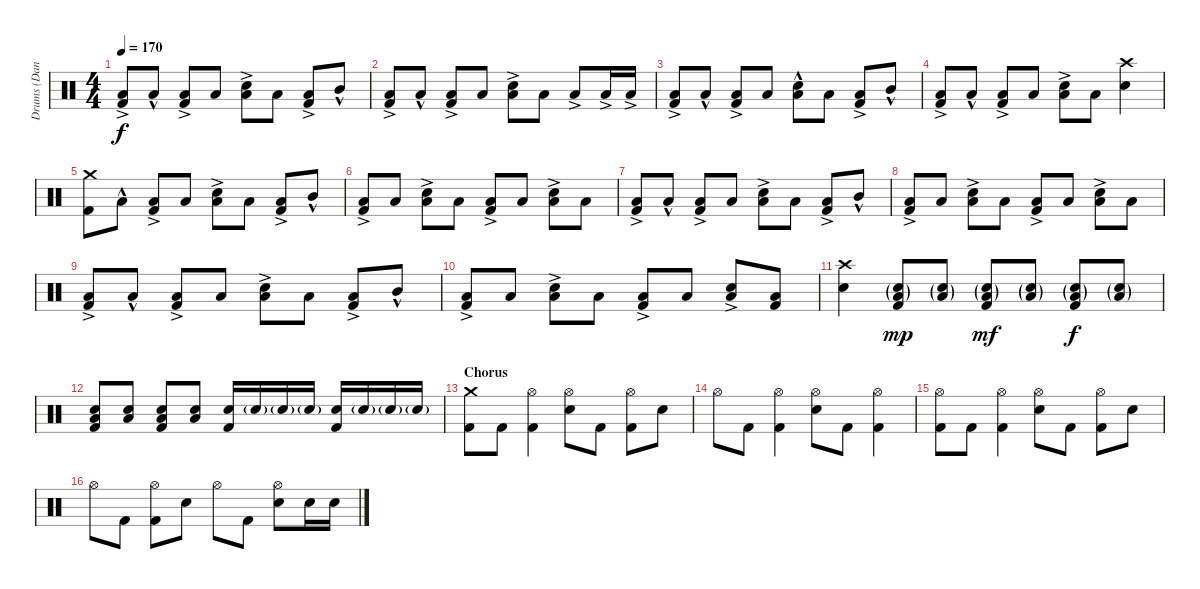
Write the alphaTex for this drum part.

\track ("Drums (Dan Trapp)" "Drums (Dan") {instrument percussion}
\staff {score}
\articulation defaults
\ts (4 4)
\tempo 170
\clef neutral
\ks c
("Kick (hit) 2" "Low Tom (hit)"{ac}).8{dy f} "Low Tom (hit)"{hac}.8 ("Kick (hit) 2" "Low Tom (hit)"{ac}).8 "Low Tom (hit)".8 ("Low Tom (hit)"{ac} "Snare (hit) 2").8 "Low Tom (hit)".8 ("Kick (hit) 2" "Low Tom (hit)"{ac}).8 "Mid Tom (hit)"{hac}.8 |
("Low Tom (hit)"{ac} "Kick (hit) 2").8 "Low Tom (hit)"{hac}.8 ("Low Tom (hit)"{ac} "Kick (hit) 2").8 "Low Tom (hit)".8 ("Snare (hit) 2" "Low Tom (hit)"{ac}).8 "Low Tom (hit)".8 "Low Tom (hit)"{ac}.8 "Low Tom (hit)"{ac}.16 "Low Tom (hit)"{ac}.16 |
("Low Tom (hit)"{ac} "Kick (hit) 2").8 "Low Tom (hit)"{hac}.8 ("Kick (hit) 2" "Low Tom (hit)"{ac}).8 "Low Tom (hit)".8 ("Snare (hit) 2" "Low Tom (hit)"{hac}).8 "Low Tom (hit)".8 ("Kick (hit) 2" "Low Tom (hit)"{ac}).8 "Mid Tom (hit)"{hac}.8 |
("Low Tom (hit)"{ac} "Kick (hit) 2").8 "Low Tom (hit)"{hac}.8 ("Low Tom (hit)"{ac} "Kick (hit) 2").8 "Low Tom (hit)".8 ("Snare (hit) 2" "Low Tom (hit)"{ac}).8 "Low Tom (hit)".8 ("Snare (hit) 2" "Crash high (hit)").4 |
("Kick (hit) 2" "Crash medium (hit)").8 "Low Tom (hit)"{hac}.8 ("Kick (hit) 2" "Low Tom (hit)"{ac}).8 "Low Tom (hit)".8 ("Low Tom (hit)"{ac} "Snare (hit) 2").8 "Low Tom (hit)".8 ("Kick (hit) 2" "Low Tom (hit)"{ac}).8 "Mid Tom (hit)"{hac}.8 |
("Low Tom (hit)"{ac} "Kick (hit) 2").8 "Low Tom (hit)".8 ("Low Tom (hit)"{ac} "Snare (hit) 2").8 "Low Tom (hit)".8 ("Low Tom (hit)"{ac} "Kick (hit) 2").8 "Low Tom (hit)".8 ("Low Tom (hit)"{ac} "Snare (hit) 2").8 "Low Tom (hit)".8 |
("Kick (hit) 2" "Low Tom (hit)"{ac}).8 "Low Tom (hit)"{hac}.8 ("Low Tom (hit)"{ac} "Kick (hit) 2").8 "Low Tom (hit)".8 ("Snare (hit) 2" "Low Tom (hit)"{ac}).8 "Low Tom (hit)".8 ("Low Tom (hit)"{ac} "Kick (hit) 2").8 "Mid Tom (hit)"{hac}.8 |
("Kick (hit) 2" "Low Tom (hit)"{ac}).8 "Low Tom (hit)".8 ("Low Tom (hit)"{ac} "Snare (hit) 2").8 "Low Tom (hit)".8 ("Low Tom (hit)"{ac} "Kick (hit) 2").8 "Low Tom (hit)".8 ("Snare (hit) 2" "Low Tom (hit)"{ac}).8 "Low Tom (hit)".8 |
("Kick (hit) 2" "Low Tom (hit)"{ac}).8 "Low Tom (hit)"{hac}.8 ("Low Tom (hit)"{ac} "Kick (hit) 2").8 "Low Tom (hit)".8 ("Snare (hit) 2" "Low Tom (hit)"{ac}).8 "Low Tom (hit)".8 ("Low Tom (hit)"{ac} "Kick (hit) 2").8 "Mid Tom (hit)"{hac}.8 |
("Kick (hit) 2" "Low Tom (hit)"{ac}).8 "Low Tom (hit)".8 ("Low Tom (hit)"{ac} "Snare (hit) 2").8 "Low Tom (hit)".8 ("Low Tom (hit)"{ac} "Kick (hit) 2").8 "Low Tom (hit)".8 ("Snare (hit) 2" "Low Tom (hit)"{ac}).8 ("Low Tom (hit)" "Kick (hit) 2").8 |
("Snare (hit) 2" "Crash high (hit)").4 ("Snare (hit) 2"{g} "Low Tom (hit)"{g} "Kick (hit) 2").8{dy mp} ("Low Tom (hit)"{g} "Snare (hit) 2"{g}).8 ("Low Tom (hit)"{g} "Snare (hit) 2"{g} "Kick (hit) 2").8{dy mf} ("Low Tom (hit)"{g} "Snare (hit) 2"{g}).8 ("Low Tom (hit)"{g} "Snare (hit) 2"{g} "Kick (hit) 2").8{dy f} ("Low Tom (hit)"{g} "Snare (hit) 2"{g}).8 |
("Low Tom (hit)" "Snare (hit) 2" "Kick (hit) 2").8 ("Snare (hit) 2" "Low Tom (hit)").8 ("Low Tom (hit)" "Snare (hit) 2" "Kick (hit) 2").8 ("Low Tom (hit)" "Snare (hit) 2").8 ("Snare (hit) 2" "Kick (hit) 2").16 "Snare (hit) 2"{g}.16 "Snare (hit) 2"{g}.16 "Snare (hit) 2"{g}.16 ("Snare (hit) 2" "Kick (hit) 2").16 "Snare (hit) 2"{g}.16 "Snare (hit) 2"{g}.16 "Snare (hit) 2"{g}.16 |
\section ("" "Chorus")
("Kick (hit) 2" "Crash medium (hit)").8 "Kick (hit) 2".8 ("Kick (hit) 2" "Hi-Hat (open)").4 ("Snare (hit) 2" "Hi-Hat (open)").8 "Kick (hit) 2".8 ("Kick (hit) 2" "Hi-Hat (open)").8 "Snare (hit) 2".8 |
"Hi-Hat (open)".8 "Kick (hit) 2".8 ("Kick (hit) 2" "Hi-Hat (open)").4 ("Snare (hit) 2" "Hi-Hat (open)").8 "Kick (hit) 2".8 ("Kick (hit) 2" "Hi-Hat (open)").4 |
("Kick (hit) 2" "Hi-Hat (open)").8 "Kick (hit) 2".8 ("Kick (hit) 2" "Hi-Hat (open)").4 ("Snare (hit) 2" "Hi-Hat (open)").8 "Kick (hit) 2".8 ("Kick (hit) 2" "Hi-Hat (open)").8 "Snare (hit) 2".8 |
"Hi-Hat (open)".8 "Kick (hit) 2".8 ("Kick (hit) 2" "Hi-Hat (open)").8 "Snare (hit) 2".8 "Hi-Hat (open)".8 "Kick (hit) 2".8 ("Hi-Hat (open)" "Snare (hit) 2").8 "Snare (hit) 2".16 "Snare (hit) 2".16
